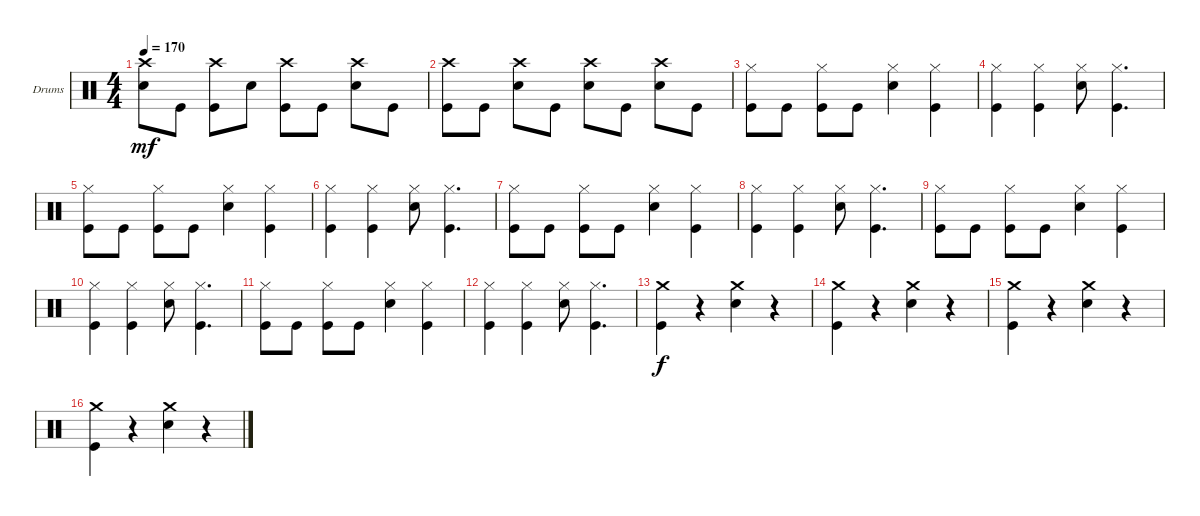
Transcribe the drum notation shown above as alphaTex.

\defaultSystemsLayout 4
\bracketExtendMode groupsimilarinstruments
\firstSystemTrackNameOrientation horizontal
\otherSystemsTrackNameOrientation horizontal
\track ("Drumkit" "Drums") {instrument percussion}
\staff {score}
\articulation defaults
\ts (4 4)
\tempo 170
\clef neutral
\scale
0.333333
\ks c
("Snare (hit) 2" "Crash high (hit)").8{dy mf} "Kick (hit)".8 ("Kick (hit)" "Crash high (hit)").8 "Snare (hit) 2".8 ("Kick (hit)" "Crash high (hit)").8 "Kick (hit)".8 ("Snare (hit) 2" "Crash high (hit)").8 "Kick (hit)".8 |
\scale
0.333333 ("Kick (hit)" "Crash high (hit)").8 "Kick (hit)".8 ("Snare (hit) 2" "Crash high (hit)").8 "Kick (hit)".8 ("Snare (hit) 2" "Crash high (hit)").8 "Kick (hit)".8 ("Snare (hit) 2" "Crash high (hit)").8 "Kick (hit)".8 |
\scale
0.333333 ("Kick (hit)" "Hi-Hat (closed)").8 "Kick (hit)".8 ("Kick (hit)" "Hi-Hat (closed)").8 "Kick (hit)".8 ("Snare (hit) 2" "Hi-Hat (closed)").4 ("Kick (hit)" "Hi-Hat (closed)").4 |
\scale
0.333333 ("Kick (hit)" "Hi-Hat (closed)").4 ("Kick (hit)" "Hi-Hat (closed)").4 ("Snare (hit) 2" "Hi-Hat (closed)").8 ("Kick (hit)" "Hi-Hat (closed)").4{d} |
\scale
0.333333 ("Kick (hit)" "Hi-Hat (closed)").8 "Kick (hit)".8 ("Kick (hit)" "Hi-Hat (closed)").8 "Kick (hit)".8 ("Snare (hit) 2" "Hi-Hat (closed)").4 ("Kick (hit)" "Hi-Hat (closed)").4 |
\scale
0.333333 ("Kick (hit)" "Hi-Hat (closed)").4 ("Kick (hit)" "Hi-Hat (closed)").4 ("Snare (hit) 2" "Hi-Hat (closed)").8 ("Kick (hit)" "Hi-Hat (closed)").4{d} |
\scale
0.333333 ("Kick (hit)" "Hi-Hat (closed)").8 "Kick (hit)".8 ("Kick (hit)" "Hi-Hat (closed)").8 "Kick (hit)".8 ("Snare (hit) 2" "Hi-Hat (closed)").4 ("Kick (hit)" "Hi-Hat (closed)").4 |
\scale
0.333333 ("Kick (hit)" "Hi-Hat (closed)").4 ("Kick (hit)" "Hi-Hat (closed)").4 ("Snare (hit) 2" "Hi-Hat (closed)").8 ("Kick (hit)" "Hi-Hat (closed)").4{d} |
\scale
0.333333 ("Kick (hit)" "Hi-Hat (closed)").8 "Kick (hit)".8 ("Kick (hit)" "Hi-Hat (closed)").8 "Kick (hit)".8 ("Snare (hit) 2" "Hi-Hat (closed)").4 ("Kick (hit)" "Hi-Hat (closed)").4 |
\scale
0.333333 ("Kick (hit)" "Hi-Hat (closed)").4 ("Kick (hit)" "Hi-Hat (closed)").4 ("Snare (hit) 2" "Hi-Hat (closed)").8 ("Kick (hit)" "Hi-Hat (closed)").4{d} |
\scale
0.333333 ("Kick (hit)" "Hi-Hat (closed)").8 "Kick (hit)".8 ("Kick (hit)" "Hi-Hat (closed)").8 "Kick (hit)".8 ("Snare (hit) 2" "Hi-Hat (closed)").4 ("Kick (hit)" "Hi-Hat (closed)").4 |
\scale
0.333333 ("Kick (hit)" "Hi-Hat (closed)").4 ("Kick (hit)" "Hi-Hat (closed)").4 ("Snare (hit) 2" "Hi-Hat (closed)").8 ("Kick (hit)" "Hi-Hat (closed)").4{d} |
\scale
0.333333 ("Crash medium (hit)" "Kick (hit)").4{dy f} r.4 ("Crash medium (hit)" "Snare (hit) 2").4 r.4 |
\scale
0.333333 ("Crash medium (hit)" "Kick (hit)").4 r.4 ("Crash medium (hit)" "Snare (hit) 2").4 r.4 |
\scale
0.333333 ("Crash medium (hit)" "Kick (hit)").4 r.4 ("Crash medium (hit)" "Snare (hit) 2").4 r.4 |
\scale
0.333333 ("Crash medium (hit)" "Kick (hit)").4 r.4 ("Crash medium (hit)" "Snare (hit) 2").4 r.4
